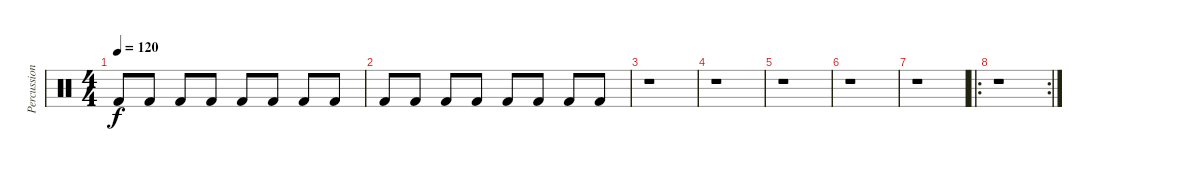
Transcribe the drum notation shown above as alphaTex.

\track ("Percussion" "Percussion") {instrument percussion}
\staff {score}
\articulation defaults
\ts (4 4)
\tempo 120
\clef neutral
\ks c "Kick (hit) 2".8{dy f} "Kick (hit) 2".8 "Kick (hit) 2".8 "Kick (hit) 2".8 "Kick (hit) 2".8 "Kick (hit) 2".8 "Kick (hit) 2".8 "Kick (hit) 2".8
|
"Kick (hit) 2".8 "Kick (hit) 2".8 "Kick (hit) 2".8 "Kick (hit) 2".8 "Kick (hit) 2".8 "Kick (hit) 2".8 "Kick (hit) 2".8 "Kick (hit) 2".8 |
r.1 |
r.1 |
r.1 |
r.1 |
r.1 |
\ro
\rc 2
r.1
